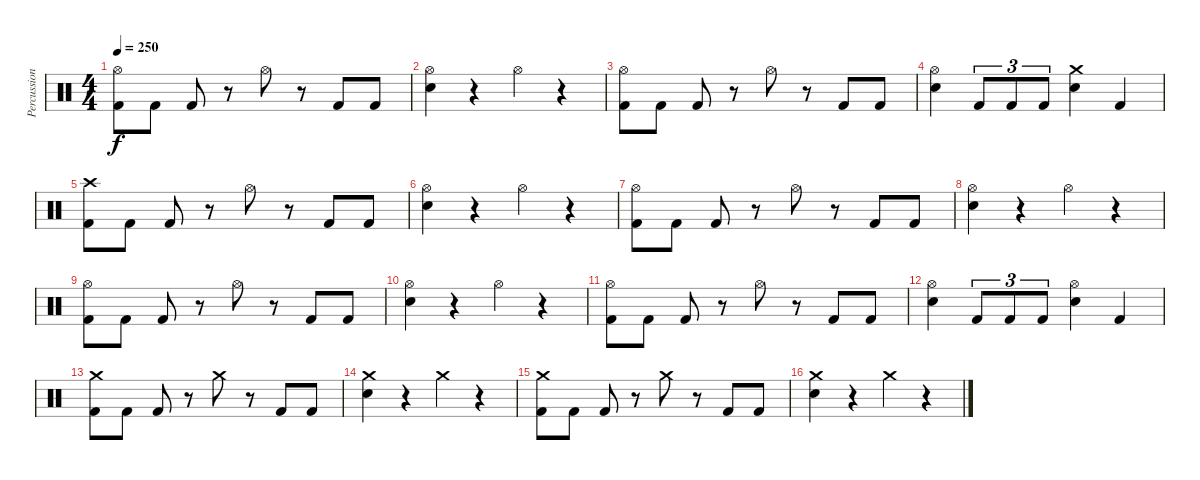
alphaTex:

\track ("Percussion" "Percussion") {instrument percussion}
\staff {score}
\articulation defaults
\ts (4 4)
\tempo 250
\clef neutral
\ks c
("Hi-Hat (open)" "Kick (hit) 2").8{dy f} "Kick (hit) 2".8 "Kick (hit) 2".8 r.8 "Hi-Hat (open)".8 r.8 "Kick (hit) 2".8 "Kick (hit) 2".8 |
("Hi-Hat (open)" "Electric Snare (hit)").4 r.4 "Hi-Hat (open)".4 r.4 |
("Hi-Hat (open)" "Kick (hit) 2").8 "Kick (hit) 2".8 "Kick (hit) 2".8 r.8 "Hi-Hat (open)".8 r.8 "Kick (hit) 2".8 "Kick (hit) 2".8 |
("Hi-Hat (open)" "Electric Snare (hit)").4 "Kick (hit) 2".8{tu (3 2)} "Kick (hit) 2".8{tu (3 2)} "Kick (hit) 2".8{tu (3 2)} ("Crash medium (hit)" "Electric Snare (hit)").4 "Kick (hit) 2".4 |
("Crash high (hit)" "Kick (hit) 2").8 "Kick (hit) 2".8 "Kick (hit) 2".8 r.8 "Hi-Hat (open)".8 r.8 "Kick (hit) 2".8 "Kick (hit) 2".8 |
("Hi-Hat (open)" "Electric Snare (hit)").4 r.4 "Hi-Hat (open)".4 r.4 |
("Hi-Hat (open)" "Kick (hit) 2").8 "Kick (hit) 2".8 "Kick (hit) 2".8 r.8 "Hi-Hat (open)".8 r.8 "Kick (hit) 2".8 "Kick (hit) 2".8 |
("Hi-Hat (open)" "Electric Snare (hit)").4 r.4 "Hi-Hat (open)".4 r.4 |
("Hi-Hat (open)" "Kick (hit) 2").8 "Kick (hit) 2".8 "Kick (hit) 2".8 r.8 "Hi-Hat (open)".8 r.8 "Kick (hit) 2".8 "Kick (hit) 2".8 |
("Hi-Hat (open)" "Electric Snare (hit)").4 r.4 "Hi-Hat (open)".4 r.4 |
("Hi-Hat (open)" "Kick (hit) 2").8 "Kick (hit) 2".8 "Kick (hit) 2".8 r.8 "Hi-Hat (open)".8 r.8 "Kick (hit) 2".8 "Kick (hit) 2".8 |
("Hi-Hat (open)" "Electric Snare (hit)").4 "Kick (hit) 2".8{tu (3 2)} "Kick (hit) 2".8{tu (3 2)} "Kick (hit) 2".8{tu (3 2)} ("Hi-Hat (open)" "Electric Snare (hit)").4 "Kick (hit) 2".4 |
("Crash medium (hit)" "Kick (hit) 2").8 "Kick (hit) 2".8 "Kick (hit) 2".8 r.8 "Crash medium (hit)".8 r.8 "Kick (hit) 2".8 "Kick (hit) 2".8 |
("Crash medium (hit)" "Electric Snare (hit)").4 r.4 "Crash medium (hit)".4 r.4 |
("Crash medium (hit)" "Kick (hit) 2").8 "Kick (hit) 2".8 "Kick (hit) 2".8 r.8 "Crash medium (hit)".8 r.8 "Kick (hit) 2".8 "Kick (hit) 2".8 |
("Crash medium (hit)" "Electric Snare (hit)").4 r.4 "Crash medium (hit)".4 r.4
